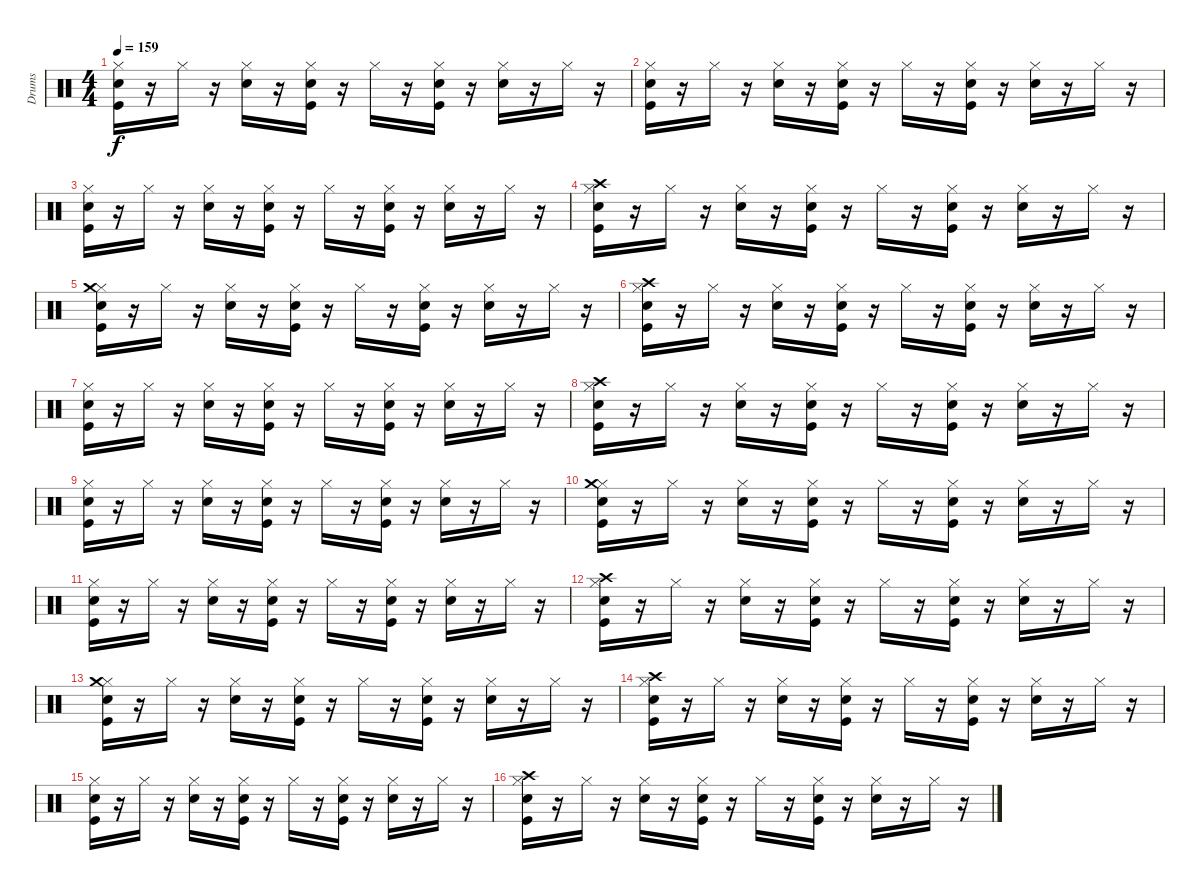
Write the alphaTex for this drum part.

\track ("Drums" "Drums") {instrument percussion}
\staff {score}
\articulation defaults
\ts (4 4)
\tempo 159
\clef neutral
\ks c
("Hi-Hat (closed)" "Snare (hit) 2" "Kick (hit)").16{dy f} r.16 "Hi-Hat (closed)".16 r.16 ("Hi-Hat (closed)" "Snare (hit) 2").16 r.16 ("Hi-Hat (closed)" "Snare (hit) 2" "Kick (hit)").16 r.16 "Hi-Hat (closed)".16 r.16 ("Hi-Hat (closed)" "Snare (hit) 2" "Kick (hit)").16 r.16 ("Hi-Hat (closed)" "Snare (hit) 2").16 r.16 "Hi-Hat (closed)".16 r.16 |
("Hi-Hat (closed)" "Snare (hit) 2" "Kick (hit)").16 r.16 "Hi-Hat (closed)".16 r.16 ("Hi-Hat (closed)" "Snare (hit) 2").16 r.16 ("Hi-Hat (closed)" "Snare (hit) 2" "Kick (hit)").16 r.16 "Hi-Hat (closed)".16 r.16 ("Hi-Hat (closed)" "Snare (hit) 2" "Kick (hit)").16 r.16 ("Hi-Hat (closed)" "Snare (hit) 2").16 r.16 "Hi-Hat (closed)".16 r.16 |
("Hi-Hat (closed)" "Snare (hit) 2" "Kick (hit)").16 r.16 "Hi-Hat (closed)".16 r.16 ("Hi-Hat (closed)" "Snare (hit) 2").16 r.16 ("Hi-Hat (closed)" "Snare (hit) 2" "Kick (hit)").16 r.16 "Hi-Hat (closed)".16 r.16 ("Hi-Hat (closed)" "Snare (hit) 2" "Kick (hit)").16 r.16 ("Hi-Hat (closed)" "Snare (hit) 2").16 r.16 "Hi-Hat (closed)".16 r.16 |
("Hi-Hat (closed)" "Crash high (hit)" "Snare (hit) 2" "Kick (hit)").16 r.16 "Hi-Hat (closed)".16 r.16 ("Hi-Hat (closed)" "Snare (hit) 2").16 r.16 ("Hi-Hat (closed)" "Snare (hit) 2" "Kick (hit)").16 r.16 "Hi-Hat (closed)".16 r.16 ("Hi-Hat (closed)" "Snare (hit) 2" "Kick (hit)").16 r.16 ("Hi-Hat (closed)" "Snare (hit) 2").16 r.16 "Hi-Hat (closed)".16 r.16 |
("Hi-Hat (closed)" "Crash medium (hit)" "Snare (hit) 2" "Kick (hit)").16 r.16 "Hi-Hat (closed)".16 r.16 ("Hi-Hat (closed)" "Snare (hit) 2").16 r.16 ("Hi-Hat (closed)" "Snare (hit) 2" "Kick (hit)").16 r.16 "Hi-Hat (closed)".16 r.16 ("Hi-Hat (closed)" "Snare (hit) 2" "Kick (hit)").16 r.16 ("Hi-Hat (closed)" "Snare (hit) 2").16 r.16 "Hi-Hat (closed)".16 r.16 |
("Hi-Hat (closed)" "Crash high (hit)" "Snare (hit) 2" "Kick (hit)").16 r.16 "Hi-Hat (closed)".16 r.16 ("Hi-Hat (closed)" "Snare (hit) 2").16 r.16 ("Hi-Hat (closed)" "Snare (hit) 2" "Kick (hit)").16 r.16 "Hi-Hat (closed)".16 r.16 ("Hi-Hat (closed)" "Snare (hit) 2" "Kick (hit)").16 r.16 ("Hi-Hat (closed)" "Snare (hit) 2").16 r.16 "Hi-Hat (closed)".16 r.16 |
("Hi-Hat (closed)" "Snare (hit) 2" "Kick (hit)").16 r.16 "Hi-Hat (closed)".16 r.16 ("Hi-Hat (closed)" "Snare (hit) 2").16 r.16 ("Hi-Hat (closed)" "Snare (hit) 2" "Kick (hit)").16 r.16 "Hi-Hat (closed)".16 r.16 ("Hi-Hat (closed)" "Snare (hit) 2" "Kick (hit)").16 r.16 ("Hi-Hat (closed)" "Snare (hit) 2").16 r.16 "Hi-Hat (closed)".16 r.16 |
("Hi-Hat (closed)" "Crash high (hit)" "Snare (hit) 2" "Kick (hit)").16 r.16 "Hi-Hat (closed)".16 r.16 ("Hi-Hat (closed)" "Snare (hit) 2").16 r.16 ("Hi-Hat (closed)" "Snare (hit) 2" "Kick (hit)").16 r.16 "Hi-Hat (closed)".16 r.16 ("Hi-Hat (closed)" "Snare (hit) 2" "Kick (hit)").16 r.16 ("Hi-Hat (closed)" "Snare (hit) 2").16 r.16 "Hi-Hat (closed)".16 r.16 |
("Hi-Hat (closed)" "Snare (hit) 2" "Kick (hit)").16 r.16 "Hi-Hat (closed)".16 r.16 ("Hi-Hat (closed)" "Snare (hit) 2").16 r.16 ("Hi-Hat (closed)" "Snare (hit) 2" "Kick (hit)").16 r.16 "Hi-Hat (closed)".16 r.16 ("Hi-Hat (closed)" "Snare (hit) 2" "Kick (hit)").16 r.16 ("Hi-Hat (closed)" "Snare (hit) 2").16 r.16 "Hi-Hat (closed)".16 r.16 |
("Hi-Hat (closed)" "Crash medium (hit)" "Snare (hit) 2" "Kick (hit)").16 r.16 "Hi-Hat (closed)".16 r.16 ("Hi-Hat (closed)" "Snare (hit) 2").16 r.16 ("Hi-Hat (closed)" "Snare (hit) 2" "Kick (hit)").16 r.16 "Hi-Hat (closed)".16 r.16 ("Hi-Hat (closed)" "Snare (hit) 2" "Kick (hit)").16 r.16 ("Hi-Hat (closed)" "Snare (hit) 2").16 r.16 "Hi-Hat (closed)".16 r.16 |
("Hi-Hat (closed)" "Snare (hit) 2" "Kick (hit)").16 r.16 "Hi-Hat (closed)".16 r.16 ("Hi-Hat (closed)" "Snare (hit) 2").16 r.16 ("Hi-Hat (closed)" "Snare (hit) 2" "Kick (hit)").16 r.16 "Hi-Hat (closed)".16 r.16 ("Hi-Hat (closed)" "Snare (hit) 2" "Kick (hit)").16 r.16 ("Hi-Hat (closed)" "Snare (hit) 2").16 r.16 "Hi-Hat (closed)".16 r.16 |
("Hi-Hat (closed)" "Crash high (hit)" "Snare (hit) 2" "Kick (hit)").16 r.16 "Hi-Hat (closed)".16 r.16 ("Hi-Hat (closed)" "Snare (hit) 2").16 r.16 ("Hi-Hat (closed)" "Snare (hit) 2" "Kick (hit)").16 r.16 "Hi-Hat (closed)".16 r.16 ("Hi-Hat (closed)" "Snare (hit) 2" "Kick (hit)").16 r.16 ("Hi-Hat (closed)" "Snare (hit) 2").16 r.16 "Hi-Hat (closed)".16 r.16 |
("Hi-Hat (closed)" "Crash medium (hit)" "Snare (hit) 2" "Kick (hit)").16 r.16 "Hi-Hat (closed)".16 r.16 ("Hi-Hat (closed)" "Snare (hit) 2").16 r.16 ("Hi-Hat (closed)" "Snare (hit) 2" "Kick (hit)").16 r.16 "Hi-Hat (closed)".16 r.16 ("Hi-Hat (closed)" "Snare (hit) 2" "Kick (hit)").16 r.16 ("Hi-Hat (closed)" "Snare (hit) 2").16 r.16 "Hi-Hat (closed)".16 r.16 |
("Hi-Hat (closed)" "Crash high (hit)" "Snare (hit) 2" "Kick (hit)").16 r.16 "Hi-Hat (closed)".16 r.16 ("Hi-Hat (closed)" "Snare (hit) 2").16 r.16 ("Hi-Hat (closed)" "Snare (hit) 2" "Kick (hit)").16 r.16 "Hi-Hat (closed)".16 r.16 ("Hi-Hat (closed)" "Snare (hit) 2" "Kick (hit)").16 r.16 ("Hi-Hat (closed)" "Snare (hit) 2").16 r.16 "Hi-Hat (closed)".16 r.16 |
("Hi-Hat (closed)" "Snare (hit) 2" "Kick (hit)").16 r.16 "Hi-Hat (closed)".16 r.16 ("Hi-Hat (closed)" "Snare (hit) 2").16 r.16 ("Hi-Hat (closed)" "Snare (hit) 2" "Kick (hit)").16 r.16 "Hi-Hat (closed)".16 r.16 ("Hi-Hat (closed)" "Snare (hit) 2" "Kick (hit)").16 r.16 ("Hi-Hat (closed)" "Snare (hit) 2").16 r.16 "Hi-Hat (closed)".16 r.16 |
("Hi-Hat (closed)" "Crash high (hit)" "Snare (hit) 2" "Kick (hit)").16 r.16 "Hi-Hat (closed)".16 r.16 ("Hi-Hat (closed)" "Snare (hit) 2").16 r.16 ("Hi-Hat (closed)" "Snare (hit) 2" "Kick (hit)").16 r.16 "Hi-Hat (closed)".16 r.16 ("Hi-Hat (closed)" "Snare (hit) 2" "Kick (hit)").16 r.16 ("Hi-Hat (closed)" "Snare (hit) 2").16 r.16 "Hi-Hat (closed)".16 r.16
